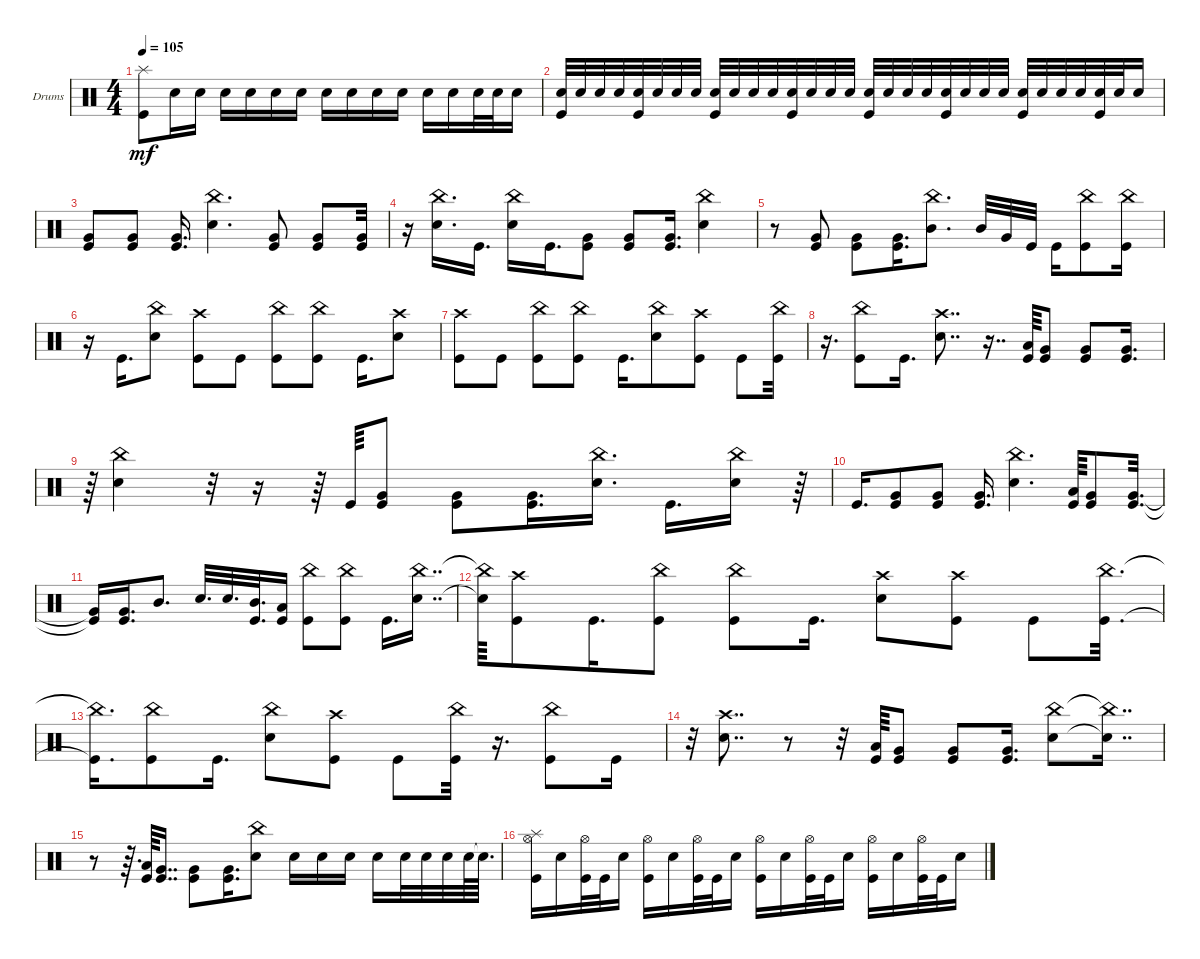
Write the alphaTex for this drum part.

\defaultSystemsLayout 4
\bracketExtendMode groupsimilarinstruments
\firstSystemTrackNameOrientation horizontal
\otherSystemsTrackNameOrientation horizontal
\track ("Hell On da Drums" "Drums") {instrument percussion}
\staff {score}
\articulation defaults
\ts (4 4)
\tempo 105
\clef neutral
\ks c
("Kick (hit)" "Splash (hit)").8{dy mf} "Snare (hit) 2".16 "Snare (hit) 2".16 "Snare (hit) 2".16 "Snare (hit) 2".16 "Snare (hit) 2".16 "Snare (hit) 2".16 "Snare (hit) 2".16 "Snare (hit) 2".16 "Snare (hit) 2".16 "Snare (hit) 2".16 "Snare (hit) 2".16 "Snare (hit) 2".16 "Snare (hit) 2".32 "Snare (hit) 2".32 "Snare (hit) 2".16 |
("Kick (hit)" "Snare (hit) 2").32 "Snare (hit) 2".32 "Snare (hit) 2".32 "Snare (hit) 2".32 ("Snare (hit) 2" "Kick (hit)").32 "Snare (hit) 2".32 "Snare (hit) 2".32 "Snare (hit) 2".32 ("Kick (hit)" "Snare (hit) 2").32 "Snare (hit) 2".32 "Snare (hit) 2".32 "Snare (hit) 2".32 ("Snare (hit) 2" "Kick (hit)").32 "Snare (hit) 2".32 "Snare (hit) 2".32 "Snare (hit) 2".32 ("Kick (hit)" "Snare (hit) 2").32 "Snare (hit) 2".32 "Snare (hit) 2".32 "Snare (hit) 2".32 ("Snare (hit) 2" "Kick (hit)").32 "Snare (hit) 2".32 "Snare (hit) 2".32 "Snare (hit) 2".32 ("Kick (hit)" "Snare (hit) 2").32 "Snare (hit) 2".32 "Snare (hit) 2".32 "Snare (hit) 2".32 ("Snare (hit) 2" "Kick (hit)").32 "Snare (hit) 2".32 "Snare (hit) 2".16 |
("Very Low Tom (hit)" "Kick (hit)").8 ("Kick (hit)" "Very Low Tom (hit)").8 ("Kick (hit)" "Very Low Tom (hit)").16{d} ("Snare (hit) 2" "China (hit)").4{d} ("Kick (hit)" "Very Low Tom (hit)").8 ("Kick (hit)" "Very Low Tom (hit)").8 ("Kick (hit)" "Very Low Tom (hit)").32 |
r.16 ("Snare (hit) 2" "China (hit)").16{d} "Kick (hit)".16{d} ("Snare (hit) 2" "China (hit)").16 "Kick (hit)".16{d} ("Kick (hit)" "Very Low Tom (hit)").8 ("Kick (hit)" "Very Low Tom (hit)").8 ("Kick (hit)" "Very Low Tom (hit)").16{d} ("Snare (hit) 2" "China (hit)").4 |
r.8 ("Very Low Tom (hit)" "Kick (hit)").8 ("Kick (hit)" "Very Low Tom (hit)").8 ("Kick (hit)" "Very Low Tom (hit)").16{d} ("China (hit)" "Mid Tom (hit)").8{d} "Mid Tom (hit)".32 "Very Low Tom (hit)".32 "Kick (hit)".32 "Kick (hit)".16 ("Kick (hit)" "China (hit)").8 ("Kick (hit)" "China (hit)").16 |
r.16 "Kick (hit)".16{d} ("Snare (hit) 2" "China (hit)").8 ("Kick (hit)" "Crash high (hit)").8 "Kick (hit)".8 ("Kick (hit)" "China (hit)").8 ("Kick (hit)" "China (hit)").8 "Kick (hit)".16{d} ("Snare (hit) 2" "Crash high (hit)").8 |
("Kick (hit)" "Crash high (hit)").8 "Kick (hit)".8 ("Kick (hit)" "China (hit)").8 ("Kick (hit)" "China (hit)").8 "Kick (hit)".16{d} ("Snare (hit) 2" "China (hit)").8 ("Kick (hit)" "Crash high (hit)").8 "Kick (hit)".8 ("Kick (hit)" "China (hit)").32 |
r.16{d} ("Kick (hit)" "China (hit)").8 "Kick (hit)".16{d} ("Snare (hit) 2" "Crash high (hit)").8{dd} r.16{dd} ("Kick (hit)" "Low Tom (hit)").64 ("Very Low Tom (hit)" "Kick (hit)").8 ("Kick (hit)" "Very Low Tom (hit)").8 ("Kick (hit)" "Very Low Tom (hit)").16{d} |
r.64 ("Snare (hit) 2" "China (hit)").4 r.32 r.16 r.64 "Kick (hit)".64 ("Kick (hit)" "Very Low Tom (hit)").8 ("Kick (hit)" "Very Low Tom (hit)").8 ("Kick (hit)" "Very Low Tom (hit)").16{d} ("Snare (hit) 2" "China (hit)").16{d} "Kick (hit)".16{d} ("Snare (hit) 2" "China (hit)").16 r.64 |
"Kick (hit)".16{d} ("Kick (hit)" "Very Low Tom (hit)").8 ("Kick (hit)" "Very Low Tom (hit)").8 ("Kick (hit)" "Very Low Tom (hit)").16{d} ("Snare (hit) 2" "China (hit)").4{d} ("Kick (hit)" "Low Tom (hit)").64 ("Very Low Tom (hit)" "Kick (hit)").8 ("Kick (hit)" "Very Low Tom (hit)").32{d} |
("Kick (hit)"{t} "Very Low Tom (hit)"{t}).16 ("Kick (hit)" "Very Low Tom (hit)").16{d} "Mid Tom (hit)".8{d} "Snare (hit) 2".32{d} "Snare (hit) 2".32{d} ("Kick (hit)" "Mid Tom (hit)").32{d} ("Low Tom (hit)" "Kick (hit)").16 ("Kick (hit)" "China (hit)").8 ("Kick (hit)" "China (hit)").8 "Kick (hit)".16{d} ("Snare (hit) 2" "China (hit)").16{dd} |
("Snare (hit) 2"{t} "China (hit)"{t}).64 ("Kick (hit)" "Crash high (hit)").8 "Kick (hit)".16{d} ("Kick (hit)" "China (hit)").8 ("Kick (hit)" "China (hit)").8 "Kick (hit)".16{d} ("Snare (hit) 2" "Crash high (hit)").8 ("Kick (hit)" "Crash high (hit)").8 "Kick (hit)".8 ("Kick (hit)" "China (hit)").32{d} |
("Kick (hit)"{t} "China (hit)"{t}).16{d} ("Kick (hit)" "China (hit)").8 "Kick (hit)".16{d} ("Snare (hit) 2" "China (hit)").8 ("Kick (hit)" "Crash high (hit)").8 "Kick (hit)".8 ("Kick (hit)" "China (hit)").32 r.16{d} ("Kick (hit)" "China (hit)").8 "Kick (hit)".16 |
r.32 ("Snare (hit) 2" "Crash high (hit)").8{dd} r.8 r.32 ("Kick (hit)" "Low Tom (hit)").64 ("Very Low Tom (hit)" "Kick (hit)").8 ("Kick (hit)" "Very Low Tom (hit)").8 ("Kick (hit)" "Very Low Tom (hit)").16{d} ("Snare (hit) 2" "China (hit)").8 ("Snare (hit) 2"{t} "China (hit)"{t}).16{dd} |
r.8 r.64{d} ("Kick (hit)" "Low Tom (hit)").64 ("Very Low Tom (hit)" "Kick (hit)").16{dd} ("Kick (hit)" "Very Low Tom (hit)").8 ("Kick (hit)" "Very Low Tom (hit)").16{d} ("Snare (hit) 2" "China (hit)").8 "Snare (hit) 2".16 "Snare (hit) 2".16 "Snare (hit) 2".16 "Snare (hit) 2".16 "Snare (hit) 2".32 "Snare (hit) 2".32 "Snare (hit) 2".32 "Snare (hit) 2".64 "Snare (hit) 2"{t}.64{d} |
("Kick (hit)" "Hi-Hat (open)" "Splash (hit)").16 "Snare (hit) 2".16 ("Kick (hit)" "Hi-Hat (open)").32 "Kick (hit)".32 "Snare (hit) 2".16 ("Kick (hit)" "Hi-Hat (open)").16 "Snare (hit) 2".16 ("Kick (hit)" "Hi-Hat (open)").32 "Kick (hit)".32 "Snare (hit) 2".16 ("Kick (hit)" "Hi-Hat (open)").16 "Snare (hit) 2".16 ("Kick (hit)" "Hi-Hat (open)").32 "Kick (hit)".32 "Snare (hit) 2".16 ("Kick (hit)" "Hi-Hat (open)").16 "Snare (hit) 2".16 ("Kick (hit)" "Hi-Hat (open)").32 "Kick (hit)".32 "Snare (hit) 2".16
